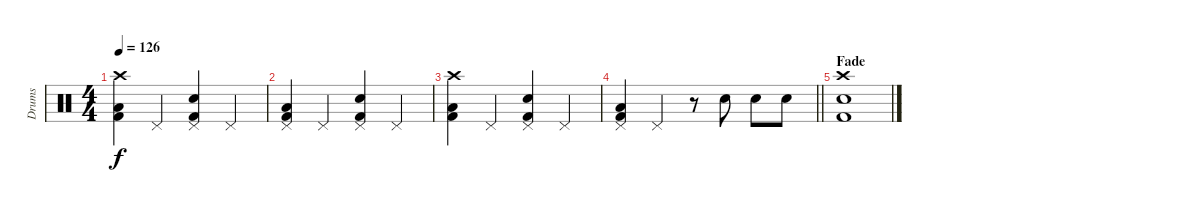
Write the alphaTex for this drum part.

\track ("Drums" "Drums") {instrument percussion}
\staff {score}
\articulation defaults
\ts (4 4)
\tempo 126
\clef neutral
\ks c
("Crash high (hit)" "Kick (hit) 2" "Low Floor Tom (hit)").4{dy f} "Pedal Hi-Hat (hit)".4 ("Pedal Hi-Hat (hit)" "Kick (hit) 2" "Electric Snare (hit)").4 "Pedal Hi-Hat (hit)".4 |
("Pedal Hi-Hat (hit)" "Kick (hit) 2" "Low Floor Tom (hit)").4 "Pedal Hi-Hat (hit)".4 ("Pedal Hi-Hat (hit)" "Kick (hit) 2" "Electric Snare (hit)").4 "Pedal Hi-Hat (hit)".4 |
("Crash high (hit)" "Kick (hit) 2" "Low Floor Tom (hit)").4 "Pedal Hi-Hat (hit)".4 ("Pedal Hi-Hat (hit)" "Kick (hit) 2" "Electric Snare (hit)").4 "Pedal Hi-Hat (hit)".4 |
\barLineRight lightlight
("Pedal Hi-Hat (hit)" "Kick (hit) 2" "Low Floor Tom (hit)").4 "Pedal Hi-Hat (hit)".4 r.8 "Electric Snare (hit)".8 "Electric Snare (hit)".8 "Electric Snare (hit)".8 |
\section ("" "Fade")
("Crash high (hit)" "Kick (hit) 2" "Electric Snare (hit)").1
